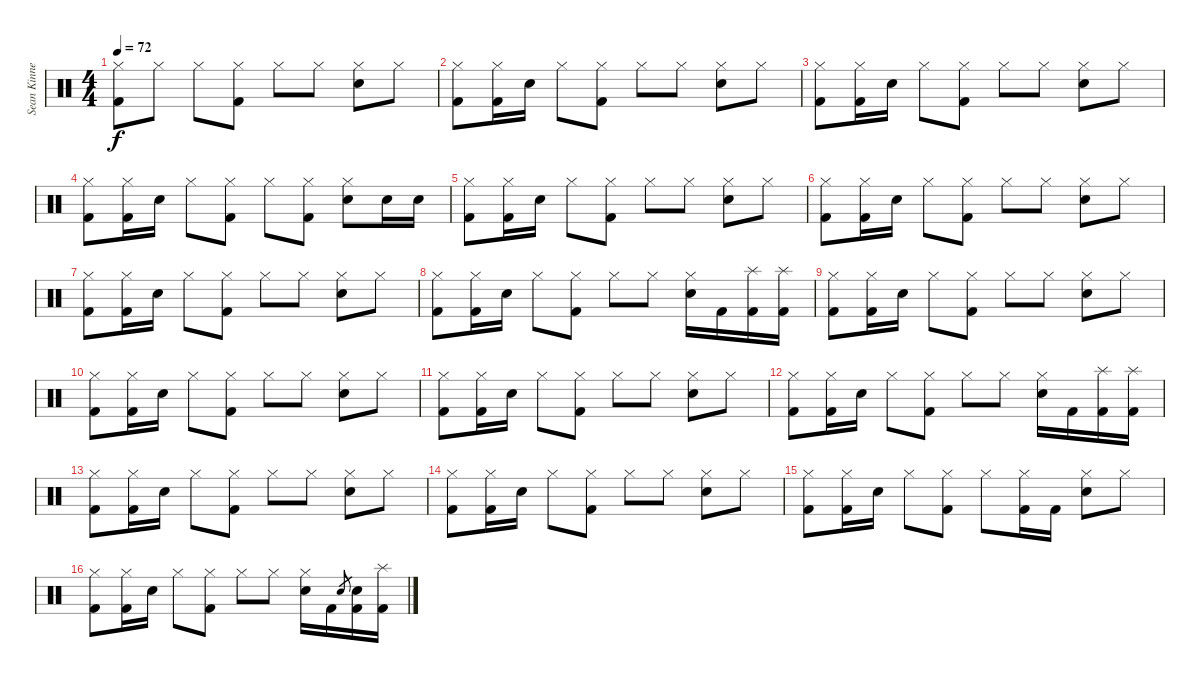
\track ("Sean Kinney - Drums" "Sean Kinne") {instrument percussion}
\staff {score}
\articulation defaults
\ts (4 4)
\tempo 72
\clef neutral
\ks c
("Hi-Hat (closed)" "Kick (hit) 2").8{dy f} "Hi-Hat (closed)".8 "Hi-Hat (closed)".8 ("Hi-Hat (closed)" "Kick (hit) 2").8 "Hi-Hat (closed)".8 "Hi-Hat (closed)".8 ("Hi-Hat (closed)" "Electric Snare (hit)").8 "Hi-Hat (closed)".8 |
("Hi-Hat (closed)" "Kick (hit) 2").8 ("Hi-Hat (closed)" "Kick (hit) 2").16 "Electric Snare (hit)".16 "Hi-Hat (closed)".8 ("Hi-Hat (closed)" "Kick (hit) 2").8 "Hi-Hat (closed)".8 "Hi-Hat (closed)".8 ("Hi-Hat (closed)" "Electric Snare (hit)").8 "Hi-Hat (closed)".8 |
("Hi-Hat (closed)" "Kick (hit) 2").8 ("Hi-Hat (closed)" "Kick (hit) 2").16 "Electric Snare (hit)".16 "Hi-Hat (closed)".8 ("Hi-Hat (closed)" "Kick (hit) 2").8 "Hi-Hat (closed)".8 "Hi-Hat (closed)".8 ("Hi-Hat (closed)" "Electric Snare (hit)").8 "Hi-Hat (closed)".8 |
("Hi-Hat (closed)" "Kick (hit) 2").8 ("Hi-Hat (closed)" "Kick (hit) 2").16 "Electric Snare (hit)".16 "Hi-Hat (closed)".8 ("Hi-Hat (closed)" "Kick (hit) 2").8 "Hi-Hat (closed)".8 ("Hi-Hat (closed)" "Kick (hit) 2").8 ("Hi-Hat (closed)" "Electric Snare (hit)").8 "Electric Snare (hit)".16 "Electric Snare (hit)".16 |
("Hi-Hat (closed)" "Kick (hit) 2").8 ("Hi-Hat (closed)" "Kick (hit) 2").16 "Electric Snare (hit)".16 "Hi-Hat (closed)".8 ("Hi-Hat (closed)" "Kick (hit) 2").8 "Hi-Hat (closed)".8 "Hi-Hat (closed)".8 ("Hi-Hat (closed)" "Electric Snare (hit)").8 "Hi-Hat (closed)".8 |
("Hi-Hat (closed)" "Kick (hit) 2").8 ("Hi-Hat (closed)" "Kick (hit) 2").16 "Electric Snare (hit)".16 "Hi-Hat (closed)".8 ("Hi-Hat (closed)" "Kick (hit) 2").8 "Hi-Hat (closed)".8 "Hi-Hat (closed)".8 ("Hi-Hat (closed)" "Electric Snare (hit)").8 "Hi-Hat (closed)".8 |
("Hi-Hat (closed)" "Kick (hit) 2").8 ("Hi-Hat (closed)" "Kick (hit) 2").16 "Electric Snare (hit)".16 "Hi-Hat (closed)".8 ("Hi-Hat (closed)" "Kick (hit) 2").8 "Hi-Hat (closed)".8 "Hi-Hat (closed)".8 ("Hi-Hat (closed)" "Electric Snare (hit)").8 "Hi-Hat (closed)".8 |
("Hi-Hat (closed)" "Kick (hit) 2").8 ("Hi-Hat (closed)" "Kick (hit) 2").16 "Electric Snare (hit)".16 "Hi-Hat (closed)".8 ("Hi-Hat (closed)" "Kick (hit) 2").8 "Hi-Hat (closed)".8 "Hi-Hat (closed)".8 ("Hi-Hat (closed)" "Electric Snare (hit)").16 "Kick (hit) 2".16 ("Splash (hit)" "Kick (hit) 2").16 ("Splash (hit)" "Kick (hit) 2").16 |
("Hi-Hat (closed)" "Kick (hit) 2").8 ("Hi-Hat (closed)" "Kick (hit) 2").16 "Electric Snare (hit)".16 "Hi-Hat (closed)".8 ("Hi-Hat (closed)" "Kick (hit) 2").8 "Hi-Hat (closed)".8 "Hi-Hat (closed)".8 ("Hi-Hat (closed)" "Electric Snare (hit)").8 "Hi-Hat (closed)".8 |
("Hi-Hat (closed)" "Kick (hit) 2").8 ("Hi-Hat (closed)" "Kick (hit) 2").16 "Electric Snare (hit)".16 "Hi-Hat (closed)".8 ("Hi-Hat (closed)" "Kick (hit) 2").8 "Hi-Hat (closed)".8 "Hi-Hat (closed)".8 ("Hi-Hat (closed)" "Electric Snare (hit)").8 "Hi-Hat (closed)".8 |
("Hi-Hat (closed)" "Kick (hit) 2").8 ("Hi-Hat (closed)" "Kick (hit) 2").16 "Electric Snare (hit)".16 "Hi-Hat (closed)".8 ("Hi-Hat (closed)" "Kick (hit) 2").8 "Hi-Hat (closed)".8 "Hi-Hat (closed)".8 ("Hi-Hat (closed)" "Electric Snare (hit)").8 "Hi-Hat (closed)".8 |
("Hi-Hat (closed)" "Kick (hit) 2").8 ("Hi-Hat (closed)" "Kick (hit) 2").16 "Electric Snare (hit)".16 "Hi-Hat (closed)".8 ("Hi-Hat (closed)" "Kick (hit) 2").8 "Hi-Hat (closed)".8 "Hi-Hat (closed)".8 ("Hi-Hat (closed)" "Electric Snare (hit)").16 "Kick (hit) 2".16 ("Splash (hit)" "Kick (hit) 2").16 ("Splash (hit)" "Kick (hit) 2").16 |
("Hi-Hat (closed)" "Kick (hit) 2").8 ("Hi-Hat (closed)" "Kick (hit) 2").16 "Electric Snare (hit)".16 "Hi-Hat (closed)".8 ("Hi-Hat (closed)" "Kick (hit) 2").8 "Hi-Hat (closed)".8 "Hi-Hat (closed)".8 ("Hi-Hat (closed)" "Electric Snare (hit)").8 "Hi-Hat (closed)".8 |
("Hi-Hat (closed)" "Kick (hit) 2").8 ("Hi-Hat (closed)" "Kick (hit) 2").16 "Electric Snare (hit)".16 "Hi-Hat (closed)".8 ("Hi-Hat (closed)" "Kick (hit) 2").8 "Hi-Hat (closed)".8 "Hi-Hat (closed)".8 ("Hi-Hat (closed)" "Electric Snare (hit)").8 "Hi-Hat (closed)".8 |
("Hi-Hat (closed)" "Kick (hit) 2").8 ("Hi-Hat (closed)" "Kick (hit) 2").16 "Electric Snare (hit)".16 "Hi-Hat (closed)".8 ("Hi-Hat (closed)" "Kick (hit) 2").8 "Hi-Hat (closed)".8 ("Hi-Hat (closed)" "Kick (hit) 2").16 "Kick (hit) 2".16 ("Hi-Hat (closed)" "Electric Snare (hit)").8 "Hi-Hat (closed)".8 |
("Hi-Hat (closed)" "Kick (hit) 2").8 ("Hi-Hat (closed)" "Kick (hit) 2").16 "Electric Snare (hit)".16 "Hi-Hat (closed)".8 ("Hi-Hat (closed)" "Kick (hit) 2").8 "Hi-Hat (closed)".8 "Hi-Hat (closed)".8 ("Hi-Hat (closed)" "Electric Snare (hit)").16 "Kick (hit) 2".16 "Electric Snare (hit)".8{gr} ("Electric Snare (hit)" "Kick (hit) 2").16 ("Splash (hit)" "Kick (hit) 2").16
